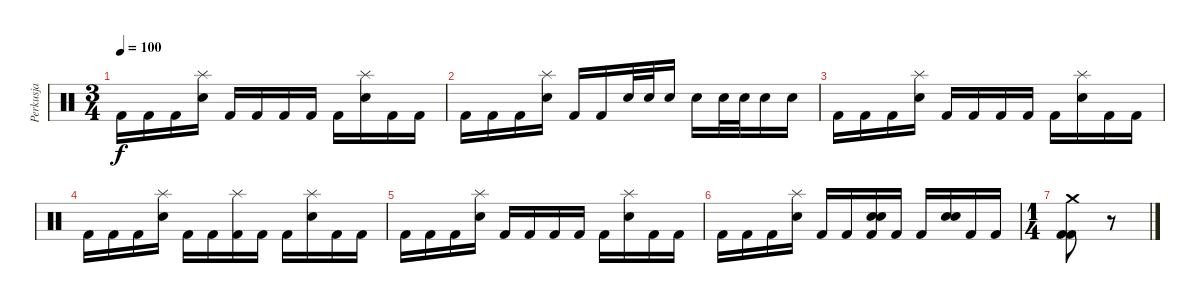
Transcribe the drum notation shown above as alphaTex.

\track ("Perkusja" "Perkusja") {instrument percussion}
\staff {score}
\articulation defaults
\ts (3 4)
\tempo 100
\clef neutral
\ks c "Kick (hit) 2".16{dy f} "Kick (hit) 2".16 "Kick (hit) 2".16
("Splash (hit)" "Snare (hit) 2").16 "Kick (hit) 2".16 "Kick (hit) 2".16 "Kick (hit) 2".16 "Kick (hit) 2".16 "Kick (hit) 2".16 ("Splash (hit)" "Snare (hit) 2").16 "Kick (hit) 2".16 "Kick (hit) 2".16 |
"Kick (hit) 2".16 "Kick (hit) 2".16 "Kick (hit) 2".16 ("Splash (hit)" "Snare (hit) 2").16 "Kick (hit) 2".16 "Kick (hit) 2".16 "Snare (hit) 2".32 "Snare (hit) 2".32 "Snare (hit) 2".16 "Snare (hit) 2".16 "Snare (hit) 2".32 "Snare (hit) 2".32 "Snare (hit) 2".16 "Snare (hit) 2".16 |
"Kick (hit) 2".16 "Kick (hit) 2".16 "Kick (hit) 2".16 ("Splash (hit)" "Snare (hit) 2").16 "Kick (hit) 2".16 "Kick (hit) 2".16 "Kick (hit) 2".16 "Kick (hit) 2".16 "Kick (hit) 2".16 ("Splash (hit)" "Snare (hit) 2").16 "Kick (hit) 2".16 "Kick (hit) 2".16 |
"Kick (hit) 2".16 "Kick (hit) 2".16 "Kick (hit) 2".16 ("Splash (hit)" "Snare (hit) 2").16 "Kick (hit) 2".16 "Kick (hit) 2".16 ("Splash (hit)" "Kick (hit) 2").16 "Kick (hit) 2".16 "Kick (hit) 2".16 ("Splash (hit)" "Snare (hit) 2").16 "Kick (hit) 2".16 "Kick (hit) 2".16 |
"Kick (hit) 2".16 "Kick (hit) 2".16 "Kick (hit) 2".16 ("Splash (hit)" "Snare (hit) 2").16 "Kick (hit) 2".16 "Kick (hit) 2".16 "Kick (hit) 2".16 "Kick (hit) 2".16 "Kick (hit) 2".16 ("Splash (hit)" "Snare (hit) 2").16 "Kick (hit) 2".16 "Kick (hit) 2".16 |
"Kick (hit) 2".16 "Kick (hit) 2".16 "Kick (hit) 2".16 ("Splash (hit)" "Snare (hit) 2").16 "Kick (hit) 2".16 "Kick (hit) 2".16 ("Snare (hit) 2" "Snare (hit) 2" "Kick (hit) 2").16 "Kick (hit) 2".16 "Kick (hit) 2".16 ("Snare (hit) 2" "Snare (hit) 2").16 "Kick (hit) 2".16 "Kick (hit) 2".16 |
\ts (1 4)
("Crash medium (hit)" "Kick (hit) 2" "Kick (hit) 2").8 r.8
